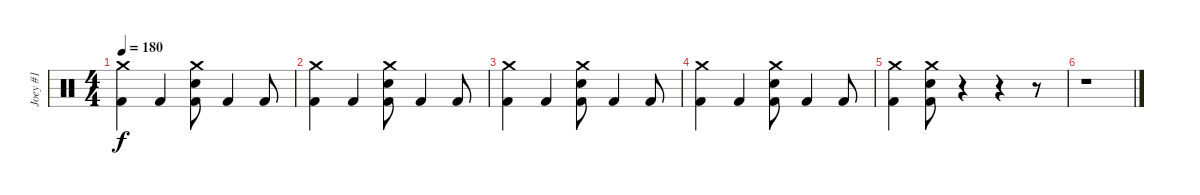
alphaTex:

\track ("Joey #1" "Joey #1") {instrument percussion}
\staff {score}
\articulation defaults
\ts (4 4)
\tempo 180
\clef neutral
\ks c
("Crash medium (hit)" "Kick (hit) 2").4{dy f} "Kick (hit) 2".4 ("Crash medium (hit)" "Electric Snare (hit)" "Kick (hit) 2").8 "Kick (hit) 2".4 "Kick (hit) 2".8 |
("Crash medium (hit)" "Kick (hit) 2").4 "Kick (hit) 2".4 ("Crash medium (hit)" "Electric Snare (hit)" "Kick (hit) 2").8 "Kick (hit) 2".4 "Kick (hit) 2".8 |
("Crash medium (hit)" "Kick (hit) 2").4 "Kick (hit) 2".4 ("Crash medium (hit)" "Electric Snare (hit)" "Kick (hit) 2").8 "Kick (hit) 2".4 "Kick (hit) 2".8 |
("Crash medium (hit)" "Kick (hit) 2").4 "Kick (hit) 2".4 ("Crash medium (hit)" "Electric Snare (hit)" "Kick (hit) 2").8 "Kick (hit) 2".4 "Kick (hit) 2".8 |
("Crash medium (hit)" "Kick (hit) 2").4 ("Crash medium (hit)" "Electric Snare (hit)" "Kick (hit) 2").8 r.4 r.4 r.8 |
r.1
